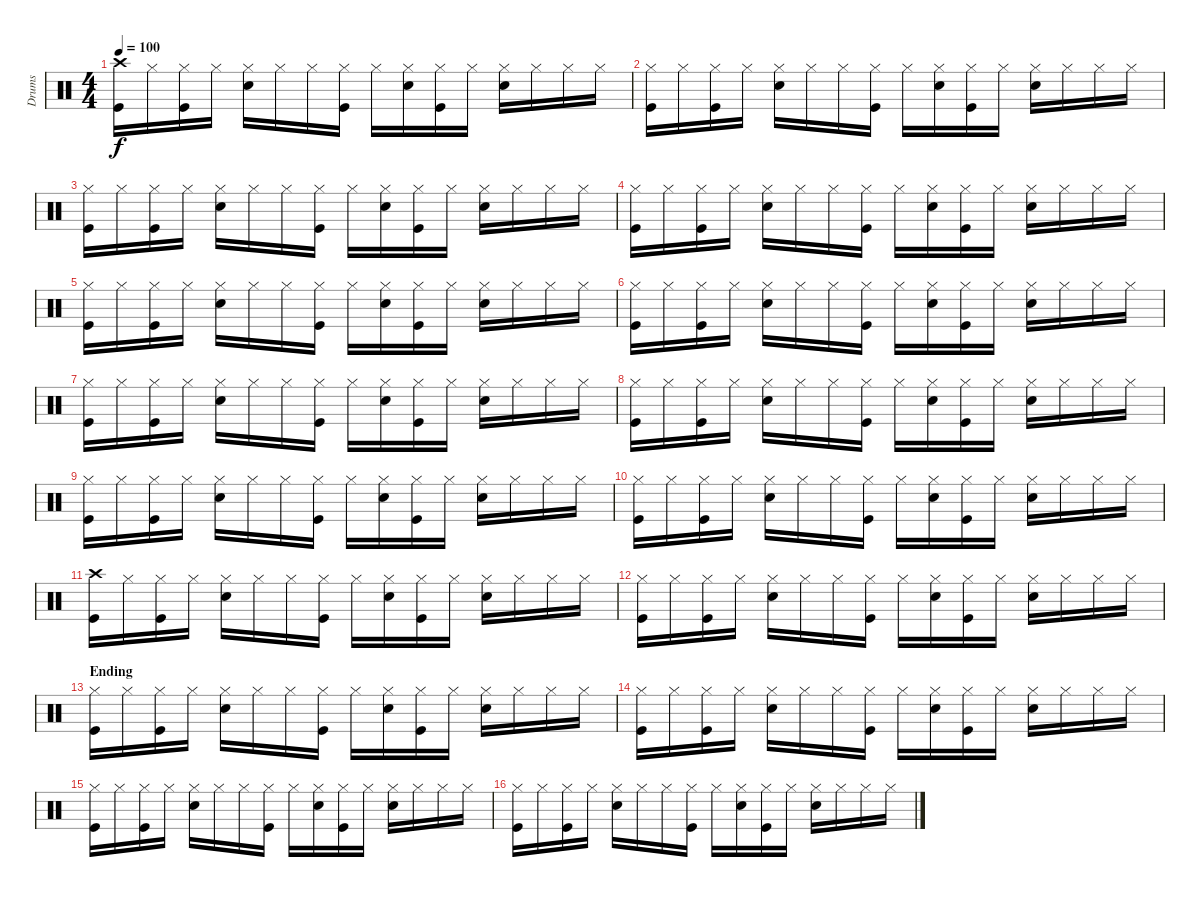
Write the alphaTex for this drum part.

\track ("Drums" "Drums") {instrument percussion}
\staff {score}
\articulation defaults
\ts (4 4)
\tempo 100
\clef neutral
\ks c
("Crash high (hit)" "Kick (hit)").16{dy f} "Hi-Hat (closed)"{x}.16 ("Hi-Hat (closed)" "Kick (hit)").16 "Hi-Hat (closed)"{x}.16 ("Hi-Hat (closed)" "Electric Snare (hit)").16 "Hi-Hat (closed)"{x}.16 "Hi-Hat (closed)".16 ("Hi-Hat (closed)"{x} "Kick (hit)").16 "Hi-Hat (closed)".16 ("Hi-Hat (closed)"{x} "Electric Snare (hit)").16 ("Hi-Hat (closed)" "Kick (hit)").16 "Hi-Hat (closed)"{x}.16 ("Hi-Hat (closed)" "Electric Snare (hit)").16 "Hi-Hat (closed)"{x}.16 "Hi-Hat (closed)".16 "Hi-Hat (closed)"{x}.16 |
("Hi-Hat (closed)" "Kick (hit)").16 "Hi-Hat (closed)"{x}.16 ("Hi-Hat (closed)" "Kick (hit)").16 "Hi-Hat (closed)"{x}.16 ("Hi-Hat (closed)" "Electric Snare (hit)").16 "Hi-Hat (closed)"{x}.16 "Hi-Hat (closed)".16 ("Hi-Hat (closed)"{x} "Kick (hit)").16 "Hi-Hat (closed)".16 ("Hi-Hat (closed)"{x} "Electric Snare (hit)").16 ("Hi-Hat (closed)" "Kick (hit)").16 "Hi-Hat (closed)"{x}.16 ("Hi-Hat (closed)" "Electric Snare (hit)").16 "Hi-Hat (closed)"{x}.16 "Hi-Hat (closed)".16 "Hi-Hat (closed)"{x}.16 |
("Hi-Hat (closed)" "Kick (hit)").16 "Hi-Hat (closed)"{x}.16 ("Hi-Hat (closed)" "Kick (hit)").16 "Hi-Hat (closed)"{x}.16 ("Hi-Hat (closed)" "Electric Snare (hit)").16 "Hi-Hat (closed)"{x}.16 "Hi-Hat (closed)".16 ("Hi-Hat (closed)"{x} "Kick (hit)").16 "Hi-Hat (closed)".16 ("Hi-Hat (closed)"{x} "Electric Snare (hit)").16 ("Hi-Hat (closed)" "Kick (hit)").16 "Hi-Hat (closed)"{x}.16 ("Hi-Hat (closed)" "Electric Snare (hit)").16 "Hi-Hat (closed)"{x}.16 "Hi-Hat (closed)".16 "Hi-Hat (closed)"{x}.16 |
("Hi-Hat (closed)" "Kick (hit)").16 "Hi-Hat (closed)"{x}.16 ("Hi-Hat (closed)" "Kick (hit)").16 "Hi-Hat (closed)"{x}.16 ("Hi-Hat (closed)" "Electric Snare (hit)").16 "Hi-Hat (closed)"{x}.16 "Hi-Hat (closed)".16 ("Hi-Hat (closed)"{x} "Kick (hit)").16 "Hi-Hat (closed)".16 ("Hi-Hat (closed)"{x} "Electric Snare (hit)").16 ("Hi-Hat (closed)" "Kick (hit)").16 "Hi-Hat (closed)"{x}.16 ("Hi-Hat (closed)" "Electric Snare (hit)").16 "Hi-Hat (closed)"{x}.16 "Hi-Hat (closed)".16 "Hi-Hat (closed)"{x}.16 |
("Hi-Hat (closed)" "Kick (hit)").16 "Hi-Hat (closed)"{x}.16 ("Hi-Hat (closed)" "Kick (hit)").16 "Hi-Hat (closed)"{x}.16 ("Hi-Hat (closed)" "Electric Snare (hit)").16 "Hi-Hat (closed)"{x}.16 "Hi-Hat (closed)".16 ("Hi-Hat (closed)"{x} "Kick (hit)").16 "Hi-Hat (closed)".16 ("Hi-Hat (closed)"{x} "Electric Snare (hit)").16 ("Hi-Hat (closed)" "Kick (hit)").16 "Hi-Hat (closed)"{x}.16 ("Hi-Hat (closed)" "Electric Snare (hit)").16 "Hi-Hat (closed)"{x}.16 "Hi-Hat (closed)".16 "Hi-Hat (closed)"{x}.16 |
("Hi-Hat (closed)" "Kick (hit)").16 "Hi-Hat (closed)"{x}.16 ("Hi-Hat (closed)" "Kick (hit)").16 "Hi-Hat (closed)"{x}.16 ("Hi-Hat (closed)" "Electric Snare (hit)").16 "Hi-Hat (closed)"{x}.16 "Hi-Hat (closed)".16 ("Hi-Hat (closed)"{x} "Kick (hit)").16 "Hi-Hat (closed)".16 ("Hi-Hat (closed)"{x} "Electric Snare (hit)").16 ("Hi-Hat (closed)" "Kick (hit)").16 "Hi-Hat (closed)"{x}.16 ("Hi-Hat (closed)" "Electric Snare (hit)").16 "Hi-Hat (closed)"{x}.16 "Hi-Hat (closed)".16 "Hi-Hat (closed)"{x}.16 |
("Hi-Hat (closed)" "Kick (hit)").16 "Hi-Hat (closed)"{x}.16 ("Hi-Hat (closed)" "Kick (hit)").16 "Hi-Hat (closed)"{x}.16 ("Hi-Hat (closed)" "Electric Snare (hit)").16 "Hi-Hat (closed)"{x}.16 "Hi-Hat (closed)".16 ("Hi-Hat (closed)"{x} "Kick (hit)").16 "Hi-Hat (closed)".16 ("Hi-Hat (closed)"{x} "Electric Snare (hit)").16 ("Hi-Hat (closed)" "Kick (hit)").16 "Hi-Hat (closed)"{x}.16 ("Hi-Hat (closed)" "Electric Snare (hit)").16 "Hi-Hat (closed)"{x}.16 "Hi-Hat (closed)".16 "Hi-Hat (closed)"{x}.16 |
("Hi-Hat (closed)" "Kick (hit)").16 "Hi-Hat (closed)"{x}.16 ("Hi-Hat (closed)" "Kick (hit)").16 "Hi-Hat (closed)"{x}.16 ("Hi-Hat (closed)" "Electric Snare (hit)").16 "Hi-Hat (closed)"{x}.16 "Hi-Hat (closed)".16 ("Hi-Hat (closed)"{x} "Kick (hit)").16 "Hi-Hat (closed)".16 ("Hi-Hat (closed)"{x} "Electric Snare (hit)").16 ("Hi-Hat (closed)" "Kick (hit)").16 "Hi-Hat (closed)"{x}.16 ("Hi-Hat (closed)" "Electric Snare (hit)").16 "Hi-Hat (closed)"{x}.16 "Hi-Hat (closed)".16 "Hi-Hat (closed)"{x}.16 |
("Hi-Hat (closed)" "Kick (hit)").16 "Hi-Hat (closed)"{x}.16 ("Hi-Hat (closed)" "Kick (hit)").16 "Hi-Hat (closed)"{x}.16 ("Hi-Hat (closed)" "Electric Snare (hit)").16 "Hi-Hat (closed)"{x}.16 "Hi-Hat (closed)".16 ("Hi-Hat (closed)"{x} "Kick (hit)").16 "Hi-Hat (closed)".16 ("Hi-Hat (closed)"{x} "Electric Snare (hit)").16 ("Hi-Hat (closed)" "Kick (hit)").16 "Hi-Hat (closed)"{x}.16 ("Hi-Hat (closed)" "Electric Snare (hit)").16 "Hi-Hat (closed)"{x}.16 "Hi-Hat (closed)".16 "Hi-Hat (closed)"{x}.16 |
("Hi-Hat (closed)" "Kick (hit)").16 "Hi-Hat (closed)"{x}.16 ("Hi-Hat (closed)" "Kick (hit)").16 "Hi-Hat (closed)"{x}.16 ("Hi-Hat (closed)" "Electric Snare (hit)").16 "Hi-Hat (closed)"{x}.16 "Hi-Hat (closed)".16 ("Hi-Hat (closed)"{x} "Kick (hit)").16 "Hi-Hat (closed)".16 ("Hi-Hat (closed)"{x} "Electric Snare (hit)").16 ("Hi-Hat (closed)" "Kick (hit)").16 "Hi-Hat (closed)"{x}.16 ("Hi-Hat (closed)" "Electric Snare (hit)").16 "Hi-Hat (closed)"{x}.16 "Hi-Hat (closed)".16 "Hi-Hat (closed)"{x}.16 |
("Crash high (hit)" "Kick (hit)").16 "Hi-Hat (closed)"{x}.16 ("Hi-Hat (closed)" "Kick (hit)").16 "Hi-Hat (closed)"{x}.16 ("Hi-Hat (closed)" "Electric Snare (hit)").16 "Hi-Hat (closed)"{x}.16 "Hi-Hat (closed)".16 ("Hi-Hat (closed)"{x} "Kick (hit)").16 "Hi-Hat (closed)".16 ("Hi-Hat (closed)"{x} "Electric Snare (hit)").16 ("Hi-Hat (closed)" "Kick (hit)").16 "Hi-Hat (closed)"{x}.16 ("Hi-Hat (closed)" "Electric Snare (hit)").16 "Hi-Hat (closed)"{x}.16 "Hi-Hat (closed)".16 "Hi-Hat (closed)"{x}.16 |
("Hi-Hat (closed)" "Kick (hit)").16 "Hi-Hat (closed)"{x}.16 ("Hi-Hat (closed)" "Kick (hit)").16 "Hi-Hat (closed)"{x}.16 ("Hi-Hat (closed)" "Electric Snare (hit)").16 "Hi-Hat (closed)"{x}.16 "Hi-Hat (closed)".16 ("Hi-Hat (closed)"{x} "Kick (hit)").16 "Hi-Hat (closed)".16 ("Hi-Hat (closed)"{x} "Electric Snare (hit)").16 ("Hi-Hat (closed)" "Kick (hit)").16 "Hi-Hat (closed)"{x}.16 ("Hi-Hat (closed)" "Electric Snare (hit)").16 "Hi-Hat (closed)"{x}.16 "Hi-Hat (closed)".16 "Hi-Hat (closed)"{x}.16 |
\section ("" "Ending")
("Hi-Hat (closed)" "Kick (hit)").16 "Hi-Hat (closed)"{x}.16 ("Hi-Hat (closed)" "Kick (hit)").16 "Hi-Hat (closed)"{x}.16 ("Hi-Hat (closed)" "Electric Snare (hit)").16 "Hi-Hat (closed)"{x}.16 "Hi-Hat (closed)".16 ("Hi-Hat (closed)"{x} "Kick (hit)").16 "Hi-Hat (closed)".16 ("Hi-Hat (closed)"{x} "Electric Snare (hit)").16 ("Hi-Hat (closed)" "Kick (hit)").16 "Hi-Hat (closed)"{x}.16 ("Hi-Hat (closed)" "Electric Snare (hit)").16 "Hi-Hat (closed)"{x}.16 "Hi-Hat (closed)".16 "Hi-Hat (closed)"{x}.16 |
("Hi-Hat (closed)" "Kick (hit)").16 "Hi-Hat (closed)"{x}.16 ("Hi-Hat (closed)" "Kick (hit)").16 "Hi-Hat (closed)"{x}.16 ("Hi-Hat (closed)" "Electric Snare (hit)").16 "Hi-Hat (closed)"{x}.16 "Hi-Hat (closed)".16 ("Hi-Hat (closed)"{x} "Kick (hit)").16 "Hi-Hat (closed)".16 ("Hi-Hat (closed)"{x} "Electric Snare (hit)").16 ("Hi-Hat (closed)" "Kick (hit)").16 "Hi-Hat (closed)"{x}.16 ("Hi-Hat (closed)" "Electric Snare (hit)").16 "Hi-Hat (closed)"{x}.16 "Hi-Hat (closed)".16 "Hi-Hat (closed)"{x}.16 |
("Hi-Hat (closed)" "Kick (hit)").16 "Hi-Hat (closed)"{x}.16 ("Hi-Hat (closed)" "Kick (hit)").16 "Hi-Hat (closed)"{x}.16 ("Hi-Hat (closed)" "Electric Snare (hit)").16 "Hi-Hat (closed)"{x}.16 "Hi-Hat (closed)".16 ("Hi-Hat (closed)"{x} "Kick (hit)").16 "Hi-Hat (closed)".16 ("Hi-Hat (closed)"{x} "Electric Snare (hit)").16 ("Hi-Hat (closed)" "Kick (hit)").16 "Hi-Hat (closed)"{x}.16 ("Hi-Hat (closed)" "Electric Snare (hit)").16 "Hi-Hat (closed)"{x}.16 "Hi-Hat (closed)".16 "Hi-Hat (closed)"{x}.16 |
("Hi-Hat (closed)" "Kick (hit)").16 "Hi-Hat (closed)"{x}.16 ("Hi-Hat (closed)" "Kick (hit)").16 "Hi-Hat (closed)"{x}.16 ("Hi-Hat (closed)" "Electric Snare (hit)").16 "Hi-Hat (closed)"{x}.16 "Hi-Hat (closed)".16 ("Hi-Hat (closed)"{x} "Kick (hit)").16 "Hi-Hat (closed)".16 ("Hi-Hat (closed)"{x} "Electric Snare (hit)").16 ("Hi-Hat (closed)" "Kick (hit)").16 "Hi-Hat (closed)"{x}.16 ("Hi-Hat (closed)" "Electric Snare (hit)").16 "Hi-Hat (closed)"{x}.16 "Hi-Hat (closed)".16 "Hi-Hat (closed)"{x}.16
